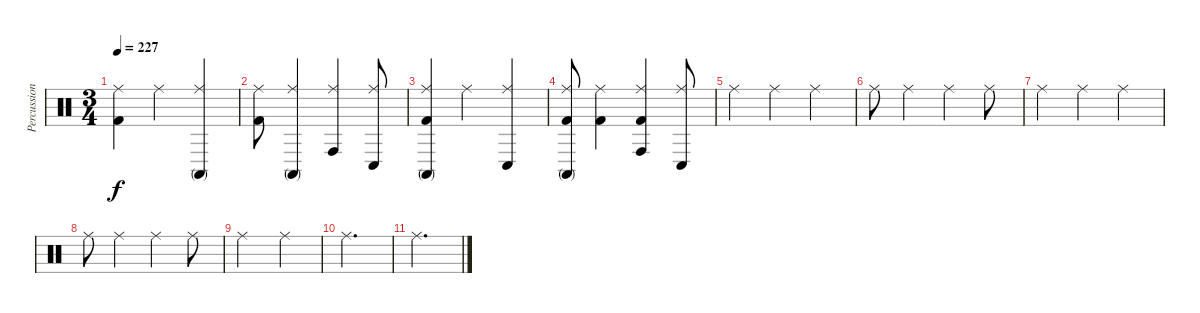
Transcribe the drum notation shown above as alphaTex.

\track ("Percussion" "Percussion") {instrument percussion}
\staff {score}
\articulation defaults
\ts (3 4)
\tempo 227
\clef neutral
\ks c
("Ride (middle)" "Kick (hit) 2").4{dy f} "Ride (middle)".4 ("Ride (middle)" "Conga high (mute)").4 |
("Ride (middle)" "Kick (hit) 2").8 ("Ride (middle)" "Conga high (mute)").4 ("Ride (middle)" "Conga high (hit)").4 ("Ride (middle)" "Conga low (hit)").8 |
("Ride (middle)" "Conga high (mute)" "Kick (hit) 2").4 "Ride (middle)".4 ("Ride (middle)" "Conga low (hit)").4 |
("Ride (middle)" "Conga high (mute)" "Kick (hit) 2").8 ("Ride (middle)" "Kick (hit) 2").4 ("Ride (middle)" "Conga high (hit)" "Kick (hit) 2").4 ("Ride (middle)" "Conga low (hit)").8 |
"Ride (middle)".4 "Ride (middle)".4 "Ride (middle)".4 |
"Ride (middle)".8 "Ride (middle)".4 "Ride (middle)".4 "Ride (middle)".8 |
"Ride (middle)".4 "Ride (middle)".4 "Ride (middle)".4 |
"Ride (middle)".8 "Ride (middle)".4 "Ride (middle)".4 "Ride (middle)".8 |
"Ride (middle)".2 "Ride (middle)".4 |
"Ride (middle)".2{d} |
"Ride (middle)".2{d}
